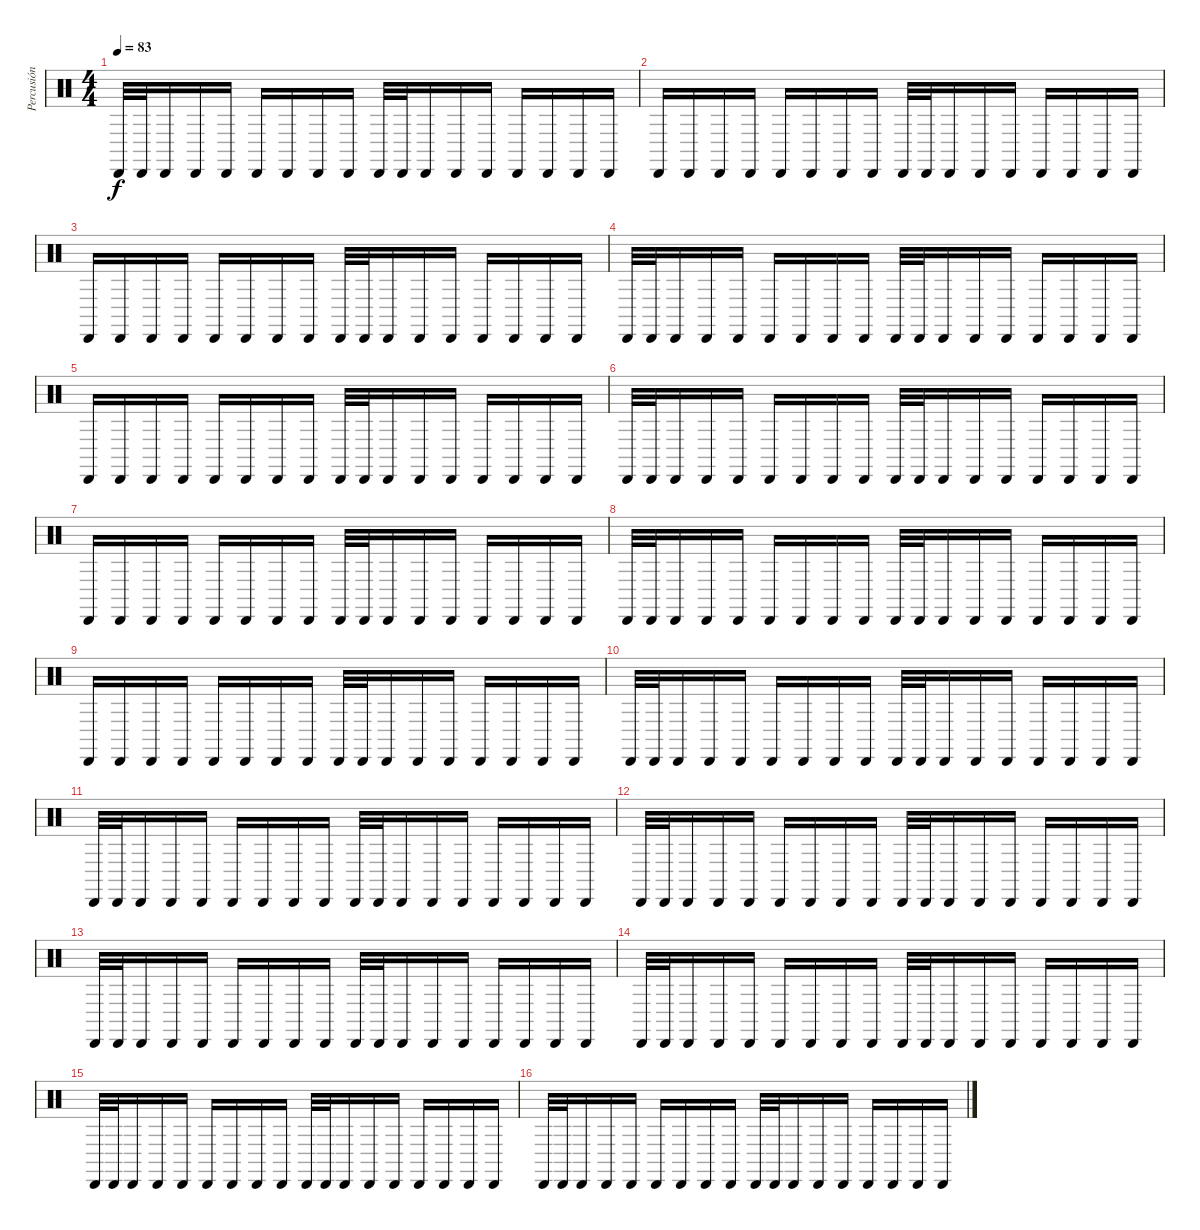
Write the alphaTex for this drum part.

\track ("Percusión" "Percusión") {instrument percussion}
\staff {score}
\articulation defaults
\ts (4 4)
\tempo 83
\clef neutral
\ks c "Cabasa (hit)".32{dy f} "Cabasa (hit)".32 "Cabasa (hit)".16 "Cabasa (hit)".16 "Cabasa (hit)".16 "Cabasa (hit)".16 "Cabasa (hit)".16 "Cabasa (hit)".16 "Cabasa (hit)".16 "Cabasa (hit)".32 "Cabasa (hit)".32 "Cabasa (hit)".16 "Cabasa (hit)".16 "Cabasa (hit)".16 "Cabasa (hit)".16 "Cabasa (hit)".16 "Cabasa (hit)".16 "Cabasa (hit)".16
|
"Cabasa (hit)".16 "Cabasa (hit)".16 "Cabasa (hit)".16 "Cabasa (hit)".16 "Cabasa (hit)".16 "Cabasa (hit)".16 "Cabasa (hit)".16 "Cabasa (hit)".16 "Cabasa (hit)".32 "Cabasa (hit)".32 "Cabasa (hit)".16 "Cabasa (hit)".16 "Cabasa (hit)".16 "Cabasa (hit)".16 "Cabasa (hit)".16 "Cabasa (hit)".16 "Cabasa (hit)".16 |
"Cabasa (hit)".16 "Cabasa (hit)".16 "Cabasa (hit)".16 "Cabasa (hit)".16 "Cabasa (hit)".16 "Cabasa (hit)".16 "Cabasa (hit)".16 "Cabasa (hit)".16 "Cabasa (hit)".32 "Cabasa (hit)".32 "Cabasa (hit)".16 "Cabasa (hit)".16 "Cabasa (hit)".16 "Cabasa (hit)".16 "Cabasa (hit)".16 "Cabasa (hit)".16 "Cabasa (hit)".16 |
"Cabasa (hit)".32 "Cabasa (hit)".32 "Cabasa (hit)".16 "Cabasa (hit)".16 "Cabasa (hit)".16 "Cabasa (hit)".16 "Cabasa (hit)".16 "Cabasa (hit)".16 "Cabasa (hit)".16 "Cabasa (hit)".32 "Cabasa (hit)".32 "Cabasa (hit)".16 "Cabasa (hit)".16 "Cabasa (hit)".16 "Cabasa (hit)".16 "Cabasa (hit)".16 "Cabasa (hit)".16 "Cabasa (hit)".16 |
"Cabasa (hit)".16 "Cabasa (hit)".16 "Cabasa (hit)".16 "Cabasa (hit)".16 "Cabasa (hit)".16 "Cabasa (hit)".16 "Cabasa (hit)".16 "Cabasa (hit)".16 "Cabasa (hit)".32 "Cabasa (hit)".32 "Cabasa (hit)".16 "Cabasa (hit)".16 "Cabasa (hit)".16 "Cabasa (hit)".16 "Cabasa (hit)".16 "Cabasa (hit)".16 "Cabasa (hit)".16 |
"Cabasa (hit)".32 "Cabasa (hit)".32 "Cabasa (hit)".16 "Cabasa (hit)".16 "Cabasa (hit)".16 "Cabasa (hit)".16 "Cabasa (hit)".16 "Cabasa (hit)".16 "Cabasa (hit)".16 "Cabasa (hit)".32 "Cabasa (hit)".32 "Cabasa (hit)".16 "Cabasa (hit)".16 "Cabasa (hit)".16 "Cabasa (hit)".16 "Cabasa (hit)".16 "Cabasa (hit)".16 "Cabasa (hit)".16 |
"Cabasa (hit)".16 "Cabasa (hit)".16 "Cabasa (hit)".16 "Cabasa (hit)".16 "Cabasa (hit)".16 "Cabasa (hit)".16 "Cabasa (hit)".16 "Cabasa (hit)".16 "Cabasa (hit)".32 "Cabasa (hit)".32 "Cabasa (hit)".16 "Cabasa (hit)".16 "Cabasa (hit)".16 "Cabasa (hit)".16 "Cabasa (hit)".16 "Cabasa (hit)".16 "Cabasa (hit)".16 |
"Cabasa (hit)".32 "Cabasa (hit)".32 "Cabasa (hit)".16 "Cabasa (hit)".16 "Cabasa (hit)".16 "Cabasa (hit)".16 "Cabasa (hit)".16 "Cabasa (hit)".16 "Cabasa (hit)".16 "Cabasa (hit)".32 "Cabasa (hit)".32 "Cabasa (hit)".16 "Cabasa (hit)".16 "Cabasa (hit)".16 "Cabasa (hit)".16 "Cabasa (hit)".16 "Cabasa (hit)".16 "Cabasa (hit)".16 |
"Cabasa (hit)".16 "Cabasa (hit)".16 "Cabasa (hit)".16 "Cabasa (hit)".16 "Cabasa (hit)".16 "Cabasa (hit)".16 "Cabasa (hit)".16 "Cabasa (hit)".16 "Cabasa (hit)".32 "Cabasa (hit)".32 "Cabasa (hit)".16 "Cabasa (hit)".16 "Cabasa (hit)".16 "Cabasa (hit)".16 "Cabasa (hit)".16 "Cabasa (hit)".16 "Cabasa (hit)".16 |
"Cabasa (hit)".32 "Cabasa (hit)".32 "Cabasa (hit)".16 "Cabasa (hit)".16 "Cabasa (hit)".16 "Cabasa (hit)".16 "Cabasa (hit)".16 "Cabasa (hit)".16 "Cabasa (hit)".16 "Cabasa (hit)".32 "Cabasa (hit)".32 "Cabasa (hit)".16 "Cabasa (hit)".16 "Cabasa (hit)".16 "Cabasa (hit)".16 "Cabasa (hit)".16 "Cabasa (hit)".16 "Cabasa (hit)".16 |
"Cabasa (hit)".32 "Cabasa (hit)".32 "Cabasa (hit)".16 "Cabasa (hit)".16 "Cabasa (hit)".16 "Cabasa (hit)".16 "Cabasa (hit)".16 "Cabasa (hit)".16 "Cabasa (hit)".16 "Cabasa (hit)".32 "Cabasa (hit)".32 "Cabasa (hit)".16 "Cabasa (hit)".16 "Cabasa (hit)".16 "Cabasa (hit)".16 "Cabasa (hit)".16 "Cabasa (hit)".16 "Cabasa (hit)".16 |
"Cabasa (hit)".32 "Cabasa (hit)".32 "Cabasa (hit)".16 "Cabasa (hit)".16 "Cabasa (hit)".16 "Cabasa (hit)".16 "Cabasa (hit)".16 "Cabasa (hit)".16 "Cabasa (hit)".16 "Cabasa (hit)".32 "Cabasa (hit)".32 "Cabasa (hit)".16 "Cabasa (hit)".16 "Cabasa (hit)".16 "Cabasa (hit)".16 "Cabasa (hit)".16 "Cabasa (hit)".16 "Cabasa (hit)".16 |
"Cabasa (hit)".32 "Cabasa (hit)".32 "Cabasa (hit)".16 "Cabasa (hit)".16 "Cabasa (hit)".16 "Cabasa (hit)".16 "Cabasa (hit)".16 "Cabasa (hit)".16 "Cabasa (hit)".16 "Cabasa (hit)".32 "Cabasa (hit)".32 "Cabasa (hit)".16 "Cabasa (hit)".16 "Cabasa (hit)".16 "Cabasa (hit)".16 "Cabasa (hit)".16 "Cabasa (hit)".16 "Cabasa (hit)".16 |
"Cabasa (hit)".32 "Cabasa (hit)".32 "Cabasa (hit)".16 "Cabasa (hit)".16 "Cabasa (hit)".16 "Cabasa (hit)".16 "Cabasa (hit)".16 "Cabasa (hit)".16 "Cabasa (hit)".16 "Cabasa (hit)".32 "Cabasa (hit)".32 "Cabasa (hit)".16 "Cabasa (hit)".16 "Cabasa (hit)".16 "Cabasa (hit)".16 "Cabasa (hit)".16 "Cabasa (hit)".16 "Cabasa (hit)".16 |
"Cabasa (hit)".32 "Cabasa (hit)".32 "Cabasa (hit)".16 "Cabasa (hit)".16 "Cabasa (hit)".16 "Cabasa (hit)".16 "Cabasa (hit)".16 "Cabasa (hit)".16 "Cabasa (hit)".16 "Cabasa (hit)".32 "Cabasa (hit)".32 "Cabasa (hit)".16 "Cabasa (hit)".16 "Cabasa (hit)".16 "Cabasa (hit)".16 "Cabasa (hit)".16 "Cabasa (hit)".16 "Cabasa (hit)".16 |
"Cabasa (hit)".32 "Cabasa (hit)".32 "Cabasa (hit)".16 "Cabasa (hit)".16 "Cabasa (hit)".16 "Cabasa (hit)".16 "Cabasa (hit)".16 "Cabasa (hit)".16 "Cabasa (hit)".16 "Cabasa (hit)".32 "Cabasa (hit)".32 "Cabasa (hit)".16 "Cabasa (hit)".16 "Cabasa (hit)".16 "Cabasa (hit)".16 "Cabasa (hit)".16 "Cabasa (hit)".16 "Cabasa (hit)".16
